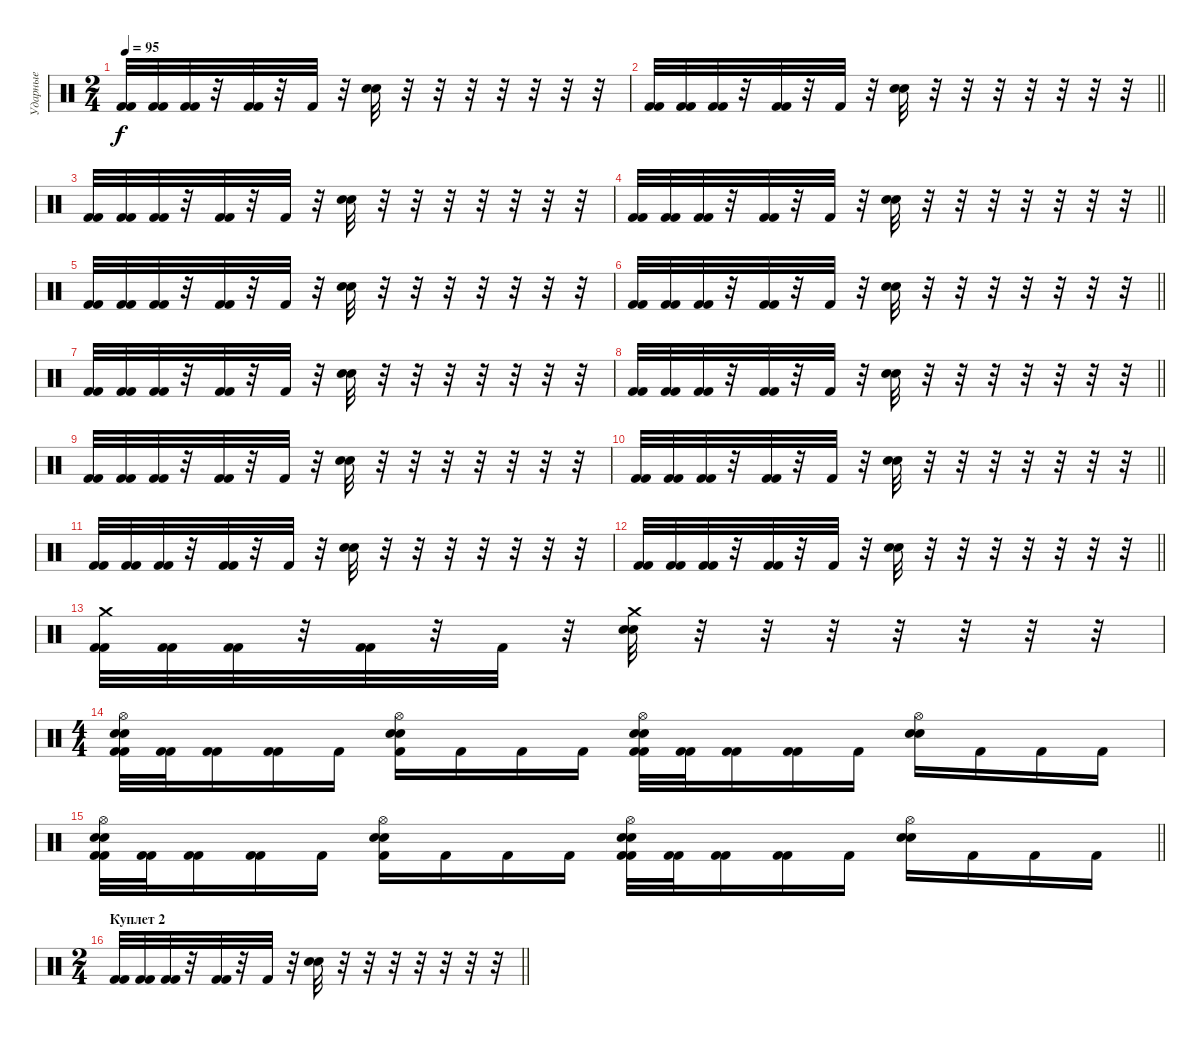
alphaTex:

\track ("Ударные" "Ударные") {instrument percussion}
\staff {score}
\articulation defaults
\ts (2 4)
\tempo 95
\clef neutral
\ks c
("Kick (hit) 2" "Kick (hit) 2").32{dy f} ("Kick (hit) 2" "Kick (hit) 2").32 ("Kick (hit) 2" "Kick (hit) 2").32 r.32 ("Kick (hit) 2" "Kick (hit) 2").32 r.32 "Kick (hit) 2".32 r.32 ("Electric Snare (hit)" "Electric Snare (hit)").32 r.32 r.32 r.32 r.32 r.32 r.32 r.32 |
\barLineRight lightlight
("Kick (hit) 2" "Kick (hit) 2").32 ("Kick (hit) 2" "Kick (hit) 2").32 ("Kick (hit) 2" "Kick (hit) 2").32 r.32 ("Kick (hit) 2" "Kick (hit) 2").32 r.32 "Kick (hit) 2".32 r.32 ("Electric Snare (hit)" "Electric Snare (hit)").32 r.32 r.32 r.32 r.32 r.32 r.32 r.32 |
("Kick (hit) 2" "Kick (hit) 2").32 ("Kick (hit) 2" "Kick (hit) 2").32 ("Kick (hit) 2" "Kick (hit) 2").32 r.32 ("Kick (hit) 2" "Kick (hit) 2").32 r.32 "Kick (hit) 2".32 r.32 ("Electric Snare (hit)" "Electric Snare (hit)").32 r.32 r.32 r.32 r.32 r.32 r.32 r.32 |
\barLineRight lightlight
("Kick (hit) 2" "Kick (hit) 2").32 ("Kick (hit) 2" "Kick (hit) 2").32 ("Kick (hit) 2" "Kick (hit) 2").32 r.32 ("Kick (hit) 2" "Kick (hit) 2").32 r.32 "Kick (hit) 2".32 r.32 ("Electric Snare (hit)" "Electric Snare (hit)").32 r.32 r.32 r.32 r.32 r.32 r.32 r.32 |
("Kick (hit) 2" "Kick (hit) 2").32 ("Kick (hit) 2" "Kick (hit) 2").32 ("Kick (hit) 2" "Kick (hit) 2").32 r.32 ("Kick (hit) 2" "Kick (hit) 2").32 r.32 "Kick (hit) 2".32 r.32 ("Electric Snare (hit)" "Electric Snare (hit)").32 r.32 r.32 r.32 r.32 r.32 r.32 r.32 |
\barLineRight lightlight
("Kick (hit) 2" "Kick (hit) 2").32 ("Kick (hit) 2" "Kick (hit) 2").32 ("Kick (hit) 2" "Kick (hit) 2").32 r.32 ("Kick (hit) 2" "Kick (hit) 2").32 r.32 "Kick (hit) 2".32 r.32 ("Electric Snare (hit)" "Electric Snare (hit)").32 r.32 r.32 r.32 r.32 r.32 r.32 r.32 |
("Kick (hit) 2" "Kick (hit) 2").32 ("Kick (hit) 2" "Kick (hit) 2").32 ("Kick (hit) 2" "Kick (hit) 2").32 r.32 ("Kick (hit) 2" "Kick (hit) 2").32 r.32 "Kick (hit) 2".32 r.32 ("Electric Snare (hit)" "Electric Snare (hit)").32 r.32 r.32 r.32 r.32 r.32 r.32 r.32 |
\barLineRight lightlight
("Kick (hit) 2" "Kick (hit) 2").32 ("Kick (hit) 2" "Kick (hit) 2").32 ("Kick (hit) 2" "Kick (hit) 2").32 r.32 ("Kick (hit) 2" "Kick (hit) 2").32 r.32 "Kick (hit) 2".32 r.32 ("Electric Snare (hit)" "Electric Snare (hit)").32 r.32 r.32 r.32 r.32 r.32 r.32 r.32 |
("Kick (hit) 2" "Kick (hit) 2").32 ("Kick (hit) 2" "Kick (hit) 2").32 ("Kick (hit) 2" "Kick (hit) 2").32 r.32 ("Kick (hit) 2" "Kick (hit) 2").32 r.32 "Kick (hit) 2".32 r.32 ("Electric Snare (hit)" "Electric Snare (hit)").32 r.32 r.32 r.32 r.32 r.32 r.32 r.32 |
\barLineRight lightlight
("Kick (hit) 2" "Kick (hit) 2").32 ("Kick (hit) 2" "Kick (hit) 2").32 ("Kick (hit) 2" "Kick (hit) 2").32 r.32 ("Kick (hit) 2" "Kick (hit) 2").32 r.32 "Kick (hit) 2".32 r.32 ("Electric Snare (hit)" "Electric Snare (hit)").32 r.32 r.32 r.32 r.32 r.32 r.32 r.32 |
("Kick (hit) 2" "Kick (hit) 2").32 ("Kick (hit) 2" "Kick (hit) 2").32 ("Kick (hit) 2" "Kick (hit) 2").32 r.32 ("Kick (hit) 2" "Kick (hit) 2").32 r.32 "Kick (hit) 2".32 r.32 ("Electric Snare (hit)" "Electric Snare (hit)").32 r.32 r.32 r.32 r.32 r.32 r.32 r.32 |
\barLineRight lightlight
("Kick (hit) 2" "Kick (hit) 2").32 ("Kick (hit) 2" "Kick (hit) 2").32 ("Kick (hit) 2" "Kick (hit) 2").32 r.32 ("Kick (hit) 2" "Kick (hit) 2").32 r.32 "Kick (hit) 2".32 r.32 ("Electric Snare (hit)" "Electric Snare (hit)").32 r.32 r.32 r.32 r.32 r.32 r.32 r.32 |
("Crash medium (hit)" "Kick (hit) 2" "Kick (hit) 2").32 ("Kick (hit) 2" "Kick (hit) 2").32 ("Kick (hit) 2" "Kick (hit) 2").32 r.32 ("Kick (hit) 2" "Kick (hit) 2").32 r.32 "Kick (hit) 2".32 r.32 ("Crash medium (hit)" "Electric Snare (hit)" "Electric Snare (hit)").32 r.32 r.32 r.32 r.32 r.32 r.32 r.32 |
\ts (4 4)
("Hi-Hat (open)" "Electric Snare (hit)" "Electric Snare (hit)" "Kick (hit) 2" "Kick (hit) 2").32 ("Kick (hit) 2" "Kick (hit) 2").32 ("Kick (hit) 2" "Kick (hit) 2").16 ("Kick (hit) 2" "Kick (hit) 2").16 "Kick (hit) 2".16 ("Hi-Hat (open)" "Electric Snare (hit)" "Electric Snare (hit)" "Kick (hit) 2").16 "Kick (hit) 2".16 "Kick (hit) 2".16 "Kick (hit) 2".16 ("Hi-Hat (open)" "Electric Snare (hit)" "Electric Snare (hit)" "Kick (hit) 2" "Kick (hit) 2").32 ("Kick (hit) 2" "Kick (hit) 2").32 ("Kick (hit) 2" "Kick (hit) 2").16 ("Kick (hit) 2" "Kick (hit) 2").16 "Kick (hit) 2".16 ("Hi-Hat (open)" "Electric Snare (hit)" "Electric Snare (hit)").16 "Kick (hit) 2".16 "Kick (hit) 2".16 "Kick (hit) 2".16 |
\barLineRight lightlight
("Hi-Hat (open)" "Electric Snare (hit)" "Electric Snare (hit)" "Kick (hit) 2" "Kick (hit) 2").32 ("Kick (hit) 2" "Kick (hit) 2").32 ("Kick (hit) 2" "Kick (hit) 2").16 ("Kick (hit) 2" "Kick (hit) 2").16 "Kick (hit) 2".16 ("Hi-Hat (open)" "Electric Snare (hit)" "Electric Snare (hit)" "Kick (hit) 2").16 "Kick (hit) 2".16 "Kick (hit) 2".16 "Kick (hit) 2".16 ("Hi-Hat (open)" "Electric Snare (hit)" "Electric Snare (hit)" "Kick (hit) 2" "Kick (hit) 2").32 ("Kick (hit) 2" "Kick (hit) 2").32 ("Kick (hit) 2" "Kick (hit) 2").16 ("Kick (hit) 2" "Kick (hit) 2").16 "Kick (hit) 2".16 ("Hi-Hat (open)" "Electric Snare (hit)" "Electric Snare (hit)").16 "Kick (hit) 2".16 "Kick (hit) 2".16 "Kick (hit) 2".16 |
\ts (2 4)
\section ("" "Куплет 2")
\barLineRight lightlight
("Kick (hit) 2" "Kick (hit) 2").32 ("Kick (hit) 2" "Kick (hit) 2").32 ("Kick (hit) 2" "Kick (hit) 2").32 r.32 ("Kick (hit) 2" "Kick (hit) 2").32 r.32 "Kick (hit) 2".32 r.32 ("Electric Snare (hit)" "Electric Snare (hit)").32 r.32 r.32 r.32 r.32 r.32 r.32 r.32
